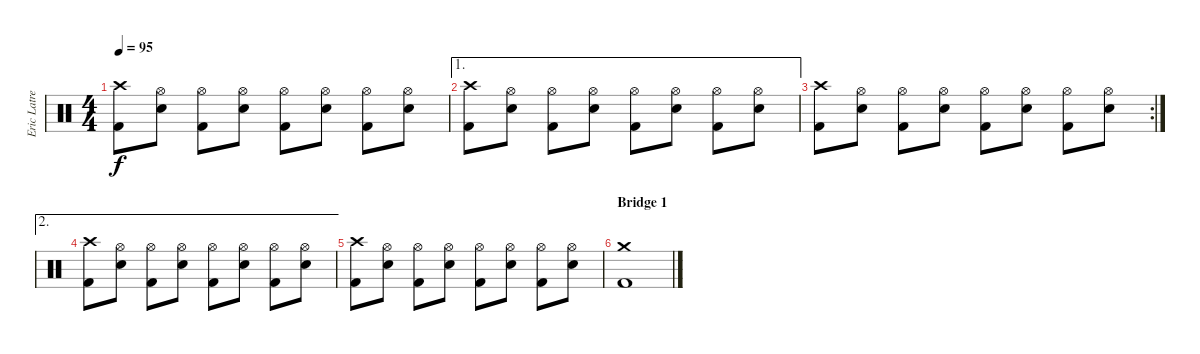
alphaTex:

\track ("Eric Latreille" "Eric Latre") {instrument percussion}
\staff {score}
\articulation defaults
\ts (4 4)
\tempo 95
\clef neutral
\ks c
("Crash high (hit)" "Kick (hit) 2").8{dy f} ("Hi-Hat (open)" "Snare (hit) 2").8 ("Hi-Hat (open)" "Kick (hit) 2").8 ("Hi-Hat (open)" "Snare (hit) 2").8 ("Hi-Hat (open)" "Kick (hit) 2").8 ("Hi-Hat (open)" "Snare (hit) 2").8 ("Hi-Hat (open)" "Kick (hit) 2").8 ("Hi-Hat (open)" "Snare (hit) 2").8 |
\ae 1
("Crash high (hit)" "Kick (hit) 2").8 ("Hi-Hat (open)" "Snare (hit) 2").8 ("Hi-Hat (open)" "Kick (hit) 2").8 ("Hi-Hat (open)" "Snare (hit) 2").8 ("Hi-Hat (open)" "Kick (hit) 2").8 ("Hi-Hat (open)" "Snare (hit) 2").8 ("Hi-Hat (open)" "Kick (hit) 2").8 ("Hi-Hat (open)" "Snare (hit) 2").8 |
\rc 2
("Crash high (hit)" "Kick (hit) 2").8 ("Hi-Hat (open)" "Snare (hit) 2").8 ("Hi-Hat (open)" "Kick (hit) 2").8 ("Hi-Hat (open)" "Snare (hit) 2").8 ("Hi-Hat (open)" "Kick (hit) 2").8 ("Hi-Hat (open)" "Snare (hit) 2").8 ("Hi-Hat (open)" "Kick (hit) 2").8 ("Hi-Hat (open)" "Snare (hit) 2").8 |
\ae 2
("Crash high (hit)" "Kick (hit) 2").8 ("Hi-Hat (open)" "Snare (hit) 2").8 ("Hi-Hat (open)" "Kick (hit) 2").8 ("Hi-Hat (open)" "Snare (hit) 2").8 ("Hi-Hat (open)" "Kick (hit) 2").8 ("Hi-Hat (open)" "Snare (hit) 2").8 ("Hi-Hat (open)" "Kick (hit) 2").8 ("Hi-Hat (open)" "Snare (hit) 2").8 |
("Crash high (hit)" "Kick (hit) 2").8 ("Hi-Hat (open)" "Snare (hit) 2").8 ("Hi-Hat (open)" "Kick (hit) 2").8 ("Hi-Hat (open)" "Snare (hit) 2").8 ("Hi-Hat (open)" "Kick (hit) 2").8 ("Hi-Hat (open)" "Snare (hit) 2").8 ("Hi-Hat (open)" "Kick (hit) 2").8 ("Hi-Hat (open)" "Snare (hit) 2").8 |
\section ("" "Bridge 1")
("Crash medium (hit)" "Kick (hit) 2").1
